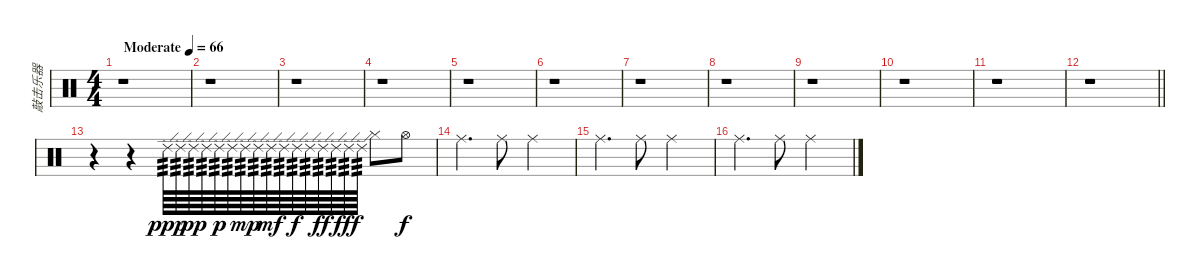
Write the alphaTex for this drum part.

\track ("敲击乐器" "敲击乐器") {instrument percussion}
\staff {score}
\articulation defaults
\ts (4 4)
\tempo (66 "Moderate")
\clef neutral
\ks c
r.1{dy ppp} |
r.1 |
r.1 |
r.1 |
r.1 |
r.1 |
r.1 |
r.1 |
r.1 |
r.1 |
r.1 |
\barLineRight lightlight
r.1 |
r.4 r.4 "Ride (edge) 2".64{tp 3} "Ride (edge) 2".64{tp 3} "Ride (edge) 2".64{tp 3 dy pp} "Ride (edge) 2".64{tp 3} "Ride (edge) 2".64{tp 3 dy p} "Ride (edge) 2".64{tp 3} "Ride (edge) 2".64{tp 3 dy mp} "Ride (edge) 2".64{tp 3} "Ride (edge) 2".64{tp 3 dy mf} "Ride (edge) 2".64{tp 3} "Ride (edge) 2".64{tp 3 dy f} "Ride (edge) 2".64{tp 3} "Ride (edge) 2".64{tp 3 dy ff} "Ride (edge) 2".64{tp 3} "Ride (edge) 2".64{tp 3 dy fff} "Ride (edge) 2".64{tp 3} "Hi-Hat (closed)".8 "Hi-Hat (open)".8{dy f} |
"Ride (middle)".4{d} "Ride (middle)".8 "Ride (middle)".2 |
"Ride (middle)".4{d} "Ride (middle)".8 "Ride (middle)".2 |
"Ride (middle)".4{d} "Ride (middle)".8 "Ride (middle)".2
